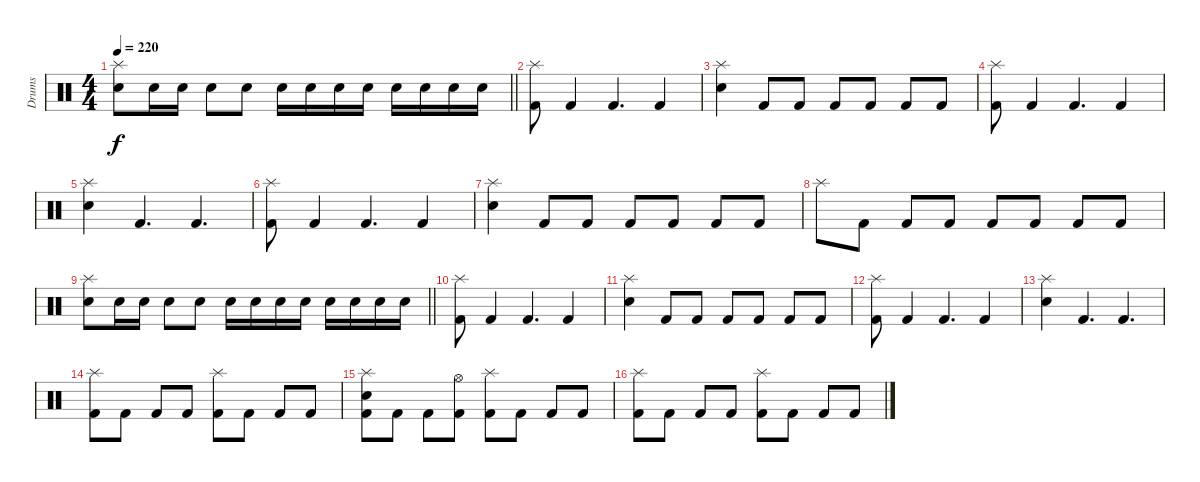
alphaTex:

\track ("Drums" "Drums") {instrument percussion}
\staff {score}
\articulation defaults
\ts (4 4)
\tempo 220
\clef neutral
\barLineRight lightlight
\ks c
("Splash (hit)" "Electric Snare (hit)").8{dy f} "Electric Snare (hit)".16 "Electric Snare (hit)".16 "Electric Snare (hit)".8 "Electric Snare (hit)".8 "Electric Snare (hit)".16 "Electric Snare (hit)".16 "Electric Snare (hit)".16 "Electric Snare (hit)".16 "Electric Snare (hit)".16 "Electric Snare (hit)".16 "Electric Snare (hit)".16 "Electric Snare (hit)".16 |
\section ("" "")
("Splash (hit)" "Kick (hit) 2").8 "Kick (hit) 2".4 "Kick (hit) 2".4{d} "Kick (hit) 2".4 |
("Splash (hit)" "Electric Snare (hit)").4 "Kick (hit) 2".8 "Kick (hit) 2".8 "Kick (hit) 2".8 "Kick (hit) 2".8 "Kick (hit) 2".8 "Kick (hit) 2".8 |
("Splash (hit)" "Kick (hit) 2").8 "Kick (hit) 2".4 "Kick (hit) 2".4{d} "Kick (hit) 2".4 |
("Splash (hit)" "Electric Snare (hit)").4 "Kick (hit) 2".4{d} "Kick (hit) 2".4{d} |
("Splash (hit)" "Kick (hit) 2").8 "Kick (hit) 2".4 "Kick (hit) 2".4{d} "Kick (hit) 2".4 |
("Splash (hit)" "Electric Snare (hit)").4 "Kick (hit) 2".8 "Kick (hit) 2".8 "Kick (hit) 2".8 "Kick (hit) 2".8 "Kick (hit) 2".8 "Kick (hit) 2".8 |
"Splash (hit)".8 "Kick (hit) 2".8 "Kick (hit) 2".8 "Kick (hit) 2".8 "Kick (hit) 2".8 "Kick (hit) 2".8 "Kick (hit) 2".8 "Kick (hit) 2".8 |
\barLineRight lightlight
("Splash (hit)" "Electric Snare (hit)").8 "Electric Snare (hit)".16 "Electric Snare (hit)".16 "Electric Snare (hit)".8 "Electric Snare (hit)".8 "Electric Snare (hit)".16 "Electric Snare (hit)".16 "Electric Snare (hit)".16 "Electric Snare (hit)".16 "Electric Snare (hit)".16 "Electric Snare (hit)".16 "Electric Snare (hit)".16 "Electric Snare (hit)".16 |
\section ("" "")
("Splash (hit)" "Kick (hit) 2").8{volume 13} "Kick (hit) 2".4 "Kick (hit) 2".4{d} "Kick (hit) 2".4 |
("Splash (hit)" "Electric Snare (hit)").4 "Kick (hit) 2".8 "Kick (hit) 2".8 "Kick (hit) 2".8 "Kick (hit) 2".8 "Kick (hit) 2".8 "Kick (hit) 2".8 |
("Splash (hit)" "Kick (hit) 2").8 "Kick (hit) 2".4 "Kick (hit) 2".4{d} "Kick (hit) 2".4 |
("Splash (hit)" "Electric Snare (hit)").4 "Kick (hit) 2".4{d} "Kick (hit) 2".4{d} |
("Splash (hit)" "Kick (hit) 2").8{volume 10} "Kick (hit) 2".8 "Kick (hit) 2".8 "Kick (hit) 2".8 ("Splash (hit)" "Kick (hit) 2").8 "Kick (hit) 2".8 "Kick (hit) 2".8 "Kick (hit) 2".8 |
("Splash (hit)" "Electric Snare (hit)" "Kick (hit) 2").8 "Kick (hit) 2".8 "Kick (hit) 2".8 ("Hi-Hat (open)" "Kick (hit) 2").8 ("Splash (hit)" "Kick (hit) 2").8 "Kick (hit) 2".8 "Kick (hit) 2".8 "Kick (hit) 2".8 |
("Splash (hit)" "Kick (hit) 2").8 "Kick (hit) 2".8 "Kick (hit) 2".8 "Kick (hit) 2".8 ("Splash (hit)" "Kick (hit) 2").8 "Kick (hit) 2".8 "Kick (hit) 2".8 "Kick (hit) 2".8
